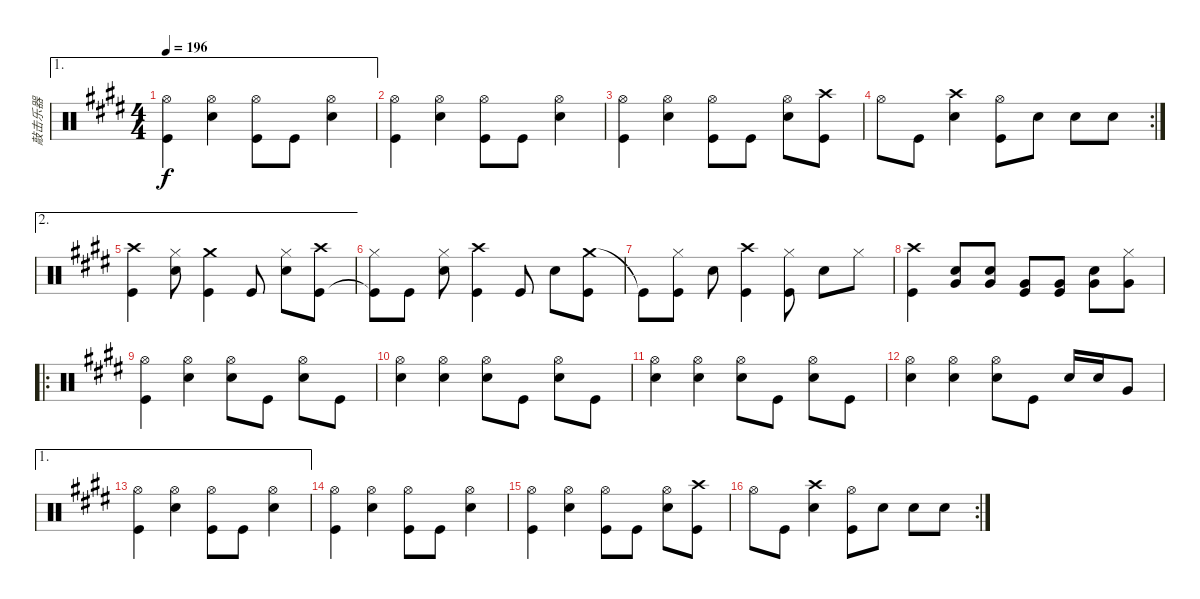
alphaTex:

\track ("敲击乐器" "敲击乐器") {instrument percussion}
\staff {score}
\articulation defaults
\ae 1
\ts (4 4)
\tempo 196
\clef neutral
\ks e
("Hi-Hat (open)" "Kick (hit)").4{dy f} ("Hi-Hat (open)" "Snare (hit) 2").4 ("Hi-Hat (open)" "Kick (hit)").8 "Kick (hit)".8 ("Hi-Hat (open)" "Snare (hit) 2").4 |
\ks c#minor
("Hi-Hat (open)" "Kick (hit)").4 ("Hi-Hat (open)" "Snare (hit) 2").4 ("Hi-Hat (open)" "Kick (hit)").8 "Kick (hit)".8 ("Hi-Hat (open)" "Snare (hit) 2").4 |
("Hi-Hat (open)" "Kick (hit)").4 ("Hi-Hat (open)" "Snare (hit) 2").4 ("Hi-Hat (open)" "Kick (hit)").8 "Kick (hit)".8 ("Hi-Hat (open)" "Snare (hit) 2").8 ("Crash high (hit)" "Kick (hit)").8 |
\rc 2 "Hi-Hat (open)".8 "Kick (hit)".8
("Crash high (hit)" "Snare (hit) 2").4 ("Hi-Hat (open)" "Kick (hit)").8 "Snare (hit) 2".8 "Snare (hit) 2".8 "Snare (hit) 2".8 |
\ae 2
\ks e
("Crash high (hit)" "Kick (hit)").4 ("Hi-Hat (closed)" "Snare (hit) 2").8 ("Crash medium (hit)" "Kick (hit)").4 "Kick (hit)".8 ("Hi-Hat (closed)" "Snare (hit) 2").8 ("Crash high (hit)" "Kick (hit)").8 |
\ks c#minor
("Hi-Hat (closed)" "Kick (hit)"{t}).8 "Kick (hit)".8 ("Hi-Hat (closed)" "Snare (hit) 2").8 ("Crash high (hit)" "Kick (hit)").4 "Kick (hit)".8 "Snare (hit) 2".8 ("Crash medium (hit)" "Kick (hit)").8 |
"Kick (hit)"{t}.8 ("Hi-Hat (closed)" "Kick (hit)").8 "Snare (hit) 2".8 ("Crash high (hit)" "Kick (hit)").4 ("Hi-Hat (closed)" "Kick (hit)").8 "Snare (hit) 2".8 "Hi-Hat (closed)".8 |
("Crash high (hit)" "Kick (hit)").4 ("Snare (hit) 2" "Very Low Tom (hit)").8 ("Snare (hit) 2" "Very Low Tom (hit)").8 ("Very Low Tom (hit)" "Kick (hit)").8 ("Very Low Tom (hit)" "Kick (hit)").8 ("Snare (hit) 2" "Very Low Tom (hit)").8 ("Hi-Hat (closed)" "Very Low Tom (hit)").8 |
\ro
\ks e
("Hi-Hat (open)" "Kick (hit)").4 ("Hi-Hat (open)" "Snare (hit) 2").4 ("Hi-Hat (open)" "Snare (hit) 2").8 "Kick (hit)".8 ("Hi-Hat (open)" "Snare (hit) 2").8 "Kick (hit)".8 |
\ks c#minor
("Hi-Hat (open)" "Snare (hit) 2").4 ("Hi-Hat (open)" "Snare (hit) 2").4 ("Hi-Hat (open)" "Snare (hit) 2").8 "Kick (hit)".8 ("Hi-Hat (open)" "Snare (hit) 2").8 "Kick (hit)".8 |
("Hi-Hat (open)" "Snare (hit) 2").4 ("Hi-Hat (open)" "Snare (hit) 2").4 ("Hi-Hat (open)" "Snare (hit) 2").8 "Kick (hit)".8 ("Hi-Hat (open)" "Snare (hit) 2").8 "Kick (hit)".8 |
("Hi-Hat (open)" "Snare (hit) 2").4 ("Hi-Hat (open)" "Snare (hit) 2").4 ("Hi-Hat (open)" "Snare (hit) 2").8 "Kick (hit)".8 "Snare (hit) 2".16 "Snare (hit) 2".16 "Very Low Tom (hit)".8 |
\ae 1
\ks e
("Hi-Hat (open)" "Kick (hit)").4 ("Hi-Hat (open)" "Snare (hit) 2").4 ("Hi-Hat (open)" "Kick (hit)").8 "Kick (hit)".8 ("Hi-Hat (open)" "Snare (hit) 2").4 |
\ks c#minor
("Hi-Hat (open)" "Kick (hit)").4 ("Hi-Hat (open)" "Snare (hit) 2").4 ("Hi-Hat (open)" "Kick (hit)").8 "Kick (hit)".8 ("Hi-Hat (open)" "Snare (hit) 2").4 |
("Hi-Hat (open)" "Kick (hit)").4 ("Hi-Hat (open)" "Snare (hit) 2").4 ("Hi-Hat (open)" "Kick (hit)").8 "Kick (hit)".8 ("Hi-Hat (open)" "Snare (hit) 2").8 ("Crash high (hit)" "Kick (hit)").8 |
\rc 2 "Hi-Hat (open)".8 "Kick (hit)".8
("Crash high (hit)" "Snare (hit) 2").4 ("Hi-Hat (open)" "Kick (hit)").8 "Snare (hit) 2".8 "Snare (hit) 2".8 "Snare (hit) 2".8
